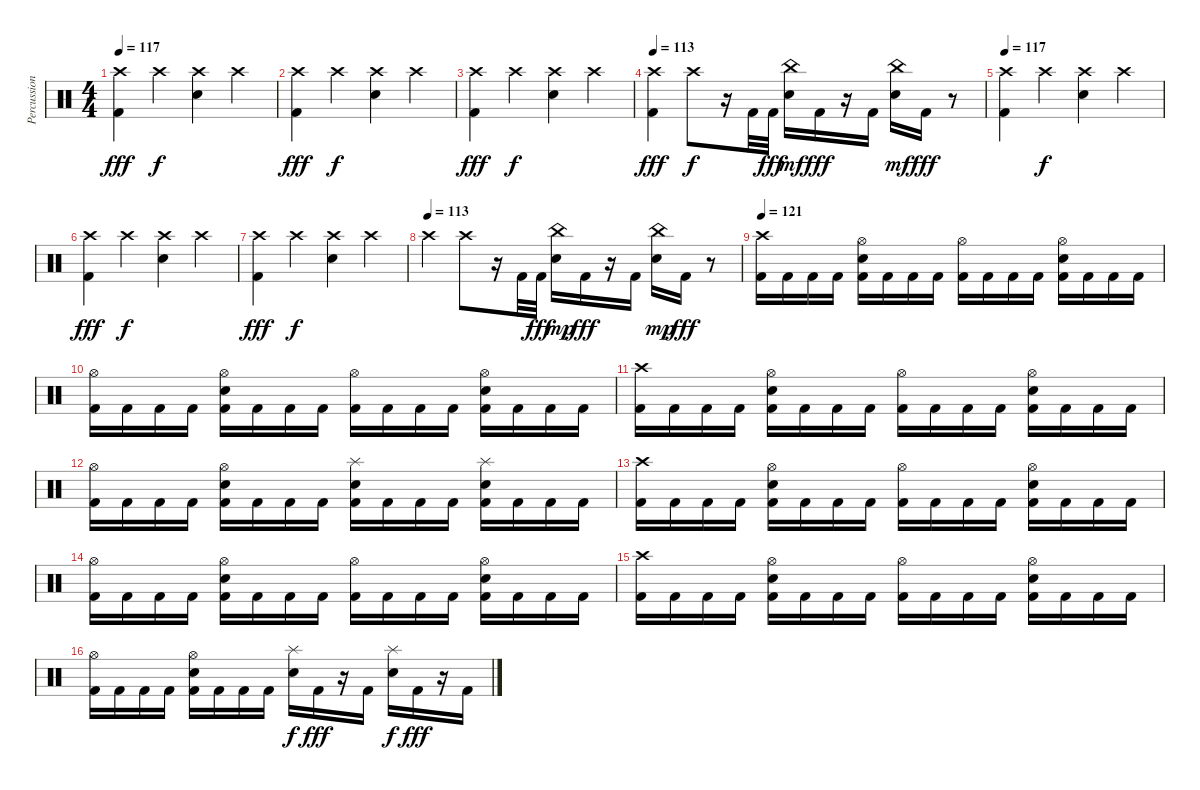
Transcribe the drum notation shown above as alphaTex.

\track ("Percussion" "Percussion") {instrument percussion}
\staff {score}
\articulation defaults
\ts (4 4)
\tempo 118
\tempo 117
\clef neutral
\ks c
("Crash high (hit)" "Kick (hit) 2").4{dy fff} "Crash high (hit)".4{dy f} ("Crash high (hit)" "Snare (hit) 2").4 "Crash high (hit)".4 |
("Crash high (hit)" "Kick (hit) 2").4{dy fff} "Crash high (hit)".4{dy f} ("Crash high (hit)" "Snare (hit) 2").4 "Crash high (hit)".4 |
("Crash high (hit)" "Kick (hit) 2").4{dy fff} "Crash high (hit)".4{dy f} ("Crash high (hit)" "Snare (hit) 2").4 "Crash high (hit)".4 |
\tempo 113
("Crash high (hit)" "Kick (hit) 2").4{dy fff} "Crash high (hit)".8{dy f} r.16 "Kick (hit) 2".32 "Kick (hit) 2".32{dy fff} ("China (hit)" "Snare (hit) 2").16{dy mf} "Kick (hit) 2".16{dy fff} r.16 "Kick (hit) 2".16 ("China (hit)" "Snare (hit) 2").16{dy mf} "Kick (hit) 2".16{dy fff} r.8 |
\tempo 117
("Crash high (hit)" "Kick (hit) 2").4 "Crash high (hit)".4{dy f} ("Crash high (hit)" "Snare (hit) 2").4 "Crash high (hit)".4 |
("Crash high (hit)" "Kick (hit) 2").4{dy fff} "Crash high (hit)".4{dy f} ("Crash high (hit)" "Snare (hit) 2").4 "Crash high (hit)".4 |
("Crash high (hit)" "Kick (hit) 2").4{dy fff} "Crash high (hit)".4{dy f} ("Crash high (hit)" "Snare (hit) 2").4 "Crash high (hit)".4 |
\tempo (113)
"Crash high (hit)".4 "Crash high (hit)".8 r.16 "Kick (hit) 2".32 "Kick (hit) 2".32{dy fff} ("China (hit)" "Snare (hit) 2").16{dy mp} "Kick (hit) 2".16{dy fff} r.16 "Kick (hit) 2".16 ("China (hit)" "Snare (hit) 2").16{dy mp} "Kick (hit) 2".16{dy fff} r.8 |
\tempo 124
\tempo 121
("Crash high (hit)" "Kick (hit) 2").16 "Kick (hit) 2".16 "Kick (hit) 2".16 "Kick (hit) 2".16 ("Hi-Hat (open)" "Snare (hit) 2" "Kick (hit) 2").16 "Kick (hit) 2".16 "Kick (hit) 2".16 "Kick (hit) 2".16 ("Hi-Hat (open)" "Kick (hit) 2").16 "Kick (hit) 2".16 "Kick (hit) 2".16 "Kick (hit) 2".16 ("Hi-Hat (open)" "Snare (hit) 2" "Kick (hit) 2").16 "Kick (hit) 2".16 "Kick (hit) 2".16 "Kick (hit) 2".16 |
("Hi-Hat (open)" "Kick (hit) 2").16 "Kick (hit) 2".16 "Kick (hit) 2".16 "Kick (hit) 2".16 ("Hi-Hat (open)" "Snare (hit) 2" "Kick (hit) 2").16 "Kick (hit) 2".16 "Kick (hit) 2".16 "Kick (hit) 2".16 ("Hi-Hat (open)" "Kick (hit) 2").16 "Kick (hit) 2".16 "Kick (hit) 2".16 "Kick (hit) 2".16 ("Hi-Hat (open)" "Snare (hit) 2" "Kick (hit) 2").16 "Kick (hit) 2".16 "Kick (hit) 2".16 "Kick (hit) 2".16 |
("Crash high (hit)" "Kick (hit) 2").16 "Kick (hit) 2".16 "Kick (hit) 2".16 "Kick (hit) 2".16 ("Hi-Hat (open)" "Snare (hit) 2" "Kick (hit) 2").16 "Kick (hit) 2".16 "Kick (hit) 2".16 "Kick (hit) 2".16 ("Hi-Hat (open)" "Kick (hit) 2").16 "Kick (hit) 2".16 "Kick (hit) 2".16 "Kick (hit) 2".16 ("Hi-Hat (open)" "Snare (hit) 2" "Kick (hit) 2").16 "Kick (hit) 2".16 "Kick (hit) 2".16 "Kick (hit) 2".16 |
("Hi-Hat (open)" "Kick (hit) 2").16 "Kick (hit) 2".16 "Kick (hit) 2".16 "Kick (hit) 2".16 ("Hi-Hat (open)" "Snare (hit) 2" "Kick (hit) 2").16 "Kick (hit) 2".16 "Kick (hit) 2".16 "Kick (hit) 2".16 ("Splash (hit)" "Snare (hit) 2" "Kick (hit) 2").16 "Kick (hit) 2".16 "Kick (hit) 2".16 "Kick (hit) 2".16 ("Splash (hit)" "Snare (hit) 2" "Kick (hit) 2").16 "Kick (hit) 2".16 "Kick (hit) 2".16 "Kick (hit) 2".16 |
("Crash high (hit)" "Kick (hit) 2").16 "Kick (hit) 2".16 "Kick (hit) 2".16 "Kick (hit) 2".16 ("Hi-Hat (open)" "Snare (hit) 2" "Kick (hit) 2").16 "Kick (hit) 2".16 "Kick (hit) 2".16 "Kick (hit) 2".16 ("Hi-Hat (open)" "Kick (hit) 2").16 "Kick (hit) 2".16 "Kick (hit) 2".16 "Kick (hit) 2".16 ("Hi-Hat (open)" "Snare (hit) 2" "Kick (hit) 2").16 "Kick (hit) 2".16 "Kick (hit) 2".16 "Kick (hit) 2".16 |
("Hi-Hat (open)" "Kick (hit) 2").16 "Kick (hit) 2".16 "Kick (hit) 2".16 "Kick (hit) 2".16 ("Hi-Hat (open)" "Snare (hit) 2" "Kick (hit) 2").16 "Kick (hit) 2".16 "Kick (hit) 2".16 "Kick (hit) 2".16 ("Hi-Hat (open)" "Kick (hit) 2").16 "Kick (hit) 2".16 "Kick (hit) 2".16 "Kick (hit) 2".16 ("Hi-Hat (open)" "Snare (hit) 2" "Kick (hit) 2").16 "Kick (hit) 2".16 "Kick (hit) 2".16 "Kick (hit) 2".16 |
("Crash high (hit)" "Kick (hit) 2").16 "Kick (hit) 2".16 "Kick (hit) 2".16 "Kick (hit) 2".16 ("Hi-Hat (open)" "Snare (hit) 2" "Kick (hit) 2").16 "Kick (hit) 2".16 "Kick (hit) 2".16 "Kick (hit) 2".16 ("Hi-Hat (open)" "Kick (hit) 2").16 "Kick (hit) 2".16 "Kick (hit) 2".16 "Kick (hit) 2".16 ("Hi-Hat (open)" "Snare (hit) 2" "Kick (hit) 2").16 "Kick (hit) 2".16 "Kick (hit) 2".16 "Kick (hit) 2".16 |
("Hi-Hat (open)" "Kick (hit) 2").16 "Kick (hit) 2".16 "Kick (hit) 2".16 "Kick (hit) 2".16 ("Hi-Hat (open)" "Snare (hit) 2" "Kick (hit) 2").16 "Kick (hit) 2".16 "Kick (hit) 2".16 "Kick (hit) 2".16 ("Splash (hit)" "Snare (hit) 2").16{dy f} "Kick (hit) 2".16{dy fff} r.16 "Kick (hit) 2".16 ("Splash (hit)" "Snare (hit) 2").16{dy f} "Kick (hit) 2".16{dy fff} r.16 "Kick (hit) 2".16
